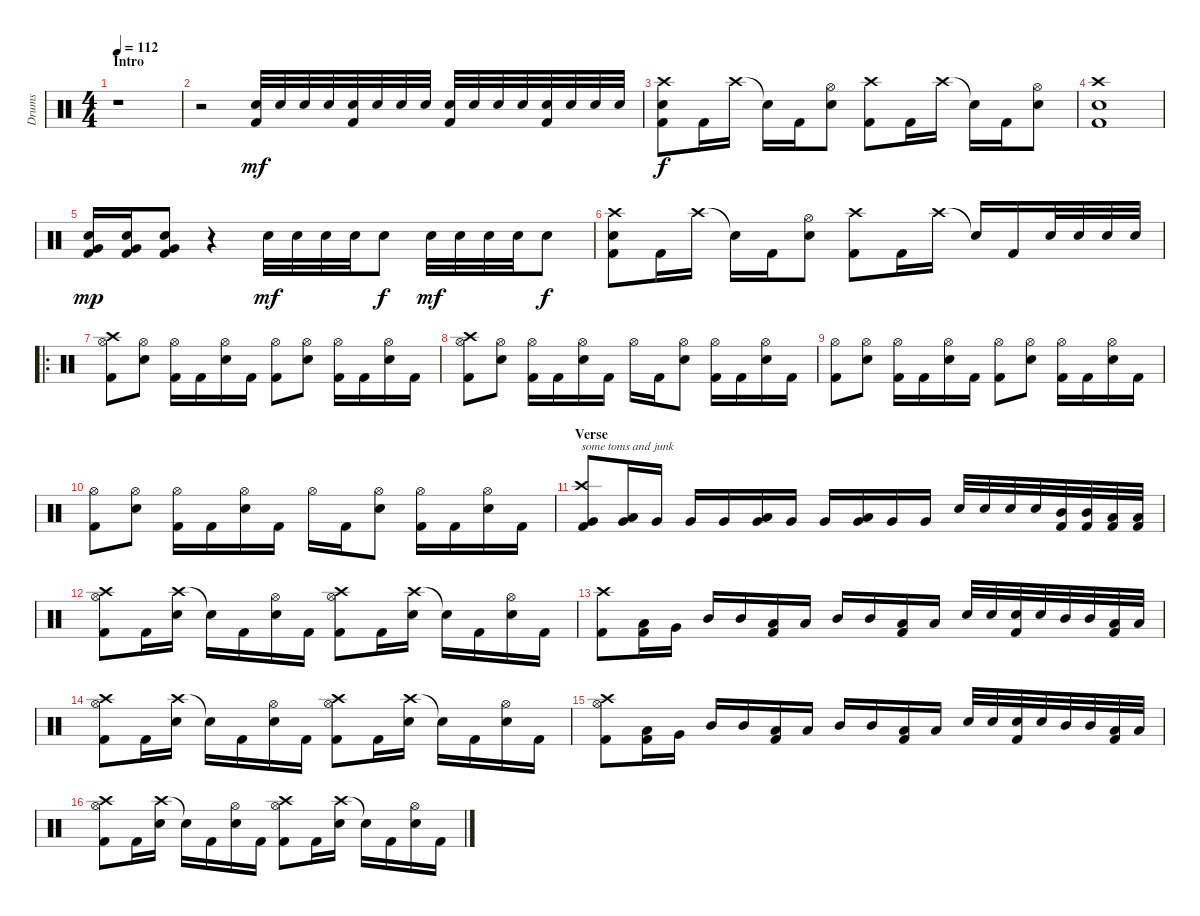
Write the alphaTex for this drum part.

\track ("Drums" "Drums") {instrument percussion}
\staff {score}
\articulation defaults
\ts (4 4)
\section ("" "Intro")
\tempo 112
\clef neutral
\ks c
r.1{dy mf} |
r.2 ("Electric Snare (hit)" "Kick (hit) 2").32 "Electric Snare (hit)".32 "Electric Snare (hit)".32 "Electric Snare (hit)".32 ("Electric Snare (hit)" "Kick (hit) 2").32 "Electric Snare (hit)".32 "Electric Snare (hit)".32 "Electric Snare (hit)".32 ("Electric Snare (hit)" "Kick (hit) 2").32 "Electric Snare (hit)".32 "Electric Snare (hit)".32 "Electric Snare (hit)".32 ("Electric Snare (hit)" "Kick (hit) 2").32 "Electric Snare (hit)".32 "Electric Snare (hit)".32 "Electric Snare (hit)".32 |
("Crash high (hit)" "Electric Snare (hit)" "Kick (hit) 2").8{dy f} "Kick (hit) 2".16 "Crash high (hit)".16 "Snare (hit)"{t}.16 "Kick (hit) 2".16 ("Hi-Hat (open)" "Electric Snare (hit)").8 ("Crash high (hit)" "Kick (hit) 2").8 "Kick (hit) 2".16 "Crash high (hit)".16 "Snare (hit)"{t}.16 "Kick (hit) 2".16 ("Hi-Hat (open)" "Electric Snare (hit)").8 |
("Crash high (hit)" "Electric Snare (hit)" "Kick (hit) 2").1 |
("Very Low Tom (hit)" "Electric Snare (hit)" "Kick (hit) 2").16{dy mp} ("Very Low Tom (hit)" "Electric Snare (hit)" "Kick (hit) 2").16 ("Very Low Tom (hit)" "Electric Snare (hit)" "Kick (hit) 2").8 r.4 "Electric Snare (hit)".32{dy mf} "Electric Snare (hit)".32 "Electric Snare (hit)".32 "Electric Snare (hit)".32 "Electric Snare (hit)".8{dy f} "Electric Snare (hit)".32{dy mf} "Electric Snare (hit)".32 "Electric Snare (hit)".32 "Electric Snare (hit)".32 "Electric Snare (hit)".8{dy f} |
("Crash high (hit)" "Electric Snare (hit)" "Kick (hit) 2").8 "Kick (hit) 2".16 "Crash high (hit)".16 "Snare (hit)"{t}.16 "Kick (hit) 2".16 ("Hi-Hat (open)" "Electric Snare (hit)").8 ("Crash high (hit)" "Kick (hit) 2").8 "Kick (hit) 2".16 "Crash high (hit)".16 "Snare (hit)"{t}.16 "Kick (hit) 2".16 "Electric Snare (hit)".32 "Electric Snare (hit)".32 "Electric Snare (hit)".32 "Electric Snare (hit)".32 |
\ro
("Crash high (hit)" "Hi-Hat (open)" "Kick (hit) 2").8 ("Hi-Hat (open)" "Electric Snare (hit)").8 ("Hi-Hat (open)" "Kick (hit) 2").16 "Kick (hit) 2".16 ("Hi-Hat (open)" "Electric Snare (hit)").16 "Kick (hit) 2".16 ("Hi-Hat (open)" "Kick (hit) 2").8 ("Hi-Hat (open)" "Electric Snare (hit)").8 ("Hi-Hat (open)" "Kick (hit) 2").16 "Kick (hit) 2".16 ("Hi-Hat (open)" "Electric Snare (hit)").16 "Kick (hit) 2".16 |
("Crash high (hit)" "Hi-Hat (open)" "Kick (hit) 2").8 ("Hi-Hat (open)" "Electric Snare (hit)").8 ("Hi-Hat (open)" "Kick (hit) 2").16 "Kick (hit) 2".16 ("Hi-Hat (open)" "Electric Snare (hit)").16 "Kick (hit) 2".16 "Hi-Hat (open)".16 "Kick (hit) 2".16 ("Hi-Hat (open)" "Electric Snare (hit)").8 ("Hi-Hat (open)" "Kick (hit) 2").16 "Kick (hit) 2".16 ("Hi-Hat (open)" "Electric Snare (hit)").16 "Kick (hit) 2".16 |
("Hi-Hat (open)" "Kick (hit) 2").8 ("Hi-Hat (open)" "Electric Snare (hit)").8 ("Hi-Hat (open)" "Kick (hit) 2").16 "Kick (hit) 2".16 ("Hi-Hat (open)" "Electric Snare (hit)").16 "Kick (hit) 2".16 ("Hi-Hat (open)" "Kick (hit) 2").8 ("Hi-Hat (open)" "Electric Snare (hit)").8 ("Hi-Hat (open)" "Kick (hit) 2").16 "Kick (hit) 2".16 ("Hi-Hat (open)" "Electric Snare (hit)").16 "Kick (hit) 2".16 |
("Hi-Hat (open)" "Kick (hit) 2").8 ("Hi-Hat (open)" "Electric Snare (hit)").8 ("Hi-Hat (open)" "Kick (hit) 2").16 "Kick (hit) 2".16 ("Hi-Hat (open)" "Electric Snare (hit)").16 "Kick (hit) 2".16 "Hi-Hat (open)".16 "Kick (hit) 2".16 ("Hi-Hat (open)" "Electric Snare (hit)").8 ("Hi-Hat (open)" "Kick (hit) 2").16 "Kick (hit) 2".16 ("Hi-Hat (open)" "Electric Snare (hit)").16 "Kick (hit) 2".16 |
\section ("" "Verse")
("Crash high (hit)" "Very Low Tom (hit)" "Kick (hit) 2").8{txt "some toms and junk"} ("Low Tom (hit)" "Very Low Tom (hit)").16 "Very Low Tom (hit)".16 "Very Low Tom (hit)".16 "Very Low Tom (hit)".16 ("Low Tom (hit)" "Very Low Tom (hit)").16 "Very Low Tom (hit)".16 "Very Low Tom (hit)".16 ("Low Tom (hit)" "Very Low Tom (hit)").16 "Very Low Tom (hit)".16 "Very Low Tom (hit)".16 "Electric Snare (hit)".32 "Electric Snare (hit)".32 "Electric Snare (hit)".32 "Electric Snare (hit)".32 ("Mid Tom (hit)" "Kick (hit) 2").32 ("Mid Tom (hit)" "Kick (hit) 2").32 ("Low Tom (hit)" "Kick (hit) 2").32 ("Low Tom (hit)" "Kick (hit) 2").32 |
("Crash high (hit)" "Hi-Hat (open)" "Kick (hit) 2").8 "Kick (hit) 2".16 ("Crash high (hit)" "Electric Snare (hit)").16 "Snare (hit)"{t}.16 "Kick (hit) 2".16 ("Hi-Hat (open)" "Electric Snare (hit)").16 "Kick (hit) 2".16 ("Crash high (hit)" "Hi-Hat (open)" "Kick (hit) 2").8 "Kick (hit) 2".16 ("Crash high (hit)" "Electric Snare (hit)").16 "Snare (hit)"{t}.16 "Kick (hit) 2".16 ("Hi-Hat (open)" "Electric Snare (hit)").16 "Kick (hit) 2".16 |
("Crash high (hit)" "Kick (hit) 2").8 ("Low Tom (hit)" "Kick (hit) 2").16 "Very Low Tom (hit)".16 "Mid Tom (hit)".16 "Mid Tom (hit)".16 ("Low Tom (hit)" "Kick (hit) 2").16 "Low Tom (hit)".16 "Mid Tom (hit)".16 "Mid Tom (hit)".16 ("Low Tom (hit)" "Kick (hit) 2").16 "Low Tom (hit)".16 "Electric Snare (hit)".32 "Electric Snare (hit)".32 ("Electric Snare (hit)" "Kick (hit) 2").32 "Electric Snare (hit)".32 "Mid Tom (hit)".32 "Mid Tom (hit)".32 ("Low Tom (hit)" "Kick (hit) 2").32 "Low Tom (hit)".32 |
("Crash high (hit)" "Hi-Hat (open)" "Kick (hit) 2").8 "Kick (hit) 2".16 ("Crash high (hit)" "Electric Snare (hit)").16 "Snare (hit)"{t}.16 "Kick (hit) 2".16 ("Hi-Hat (open)" "Electric Snare (hit)").16 "Kick (hit) 2".16 ("Crash high (hit)" "Hi-Hat (open)" "Kick (hit) 2").8 "Kick (hit) 2".16 ("Crash high (hit)" "Electric Snare (hit)").16 "Snare (hit)"{t}.16 "Kick (hit) 2".16 ("Hi-Hat (open)" "Electric Snare (hit)").16 "Kick (hit) 2".16 |
("Crash high (hit)" "Hi-Hat (open)" "Kick (hit) 2").8 ("Low Tom (hit)" "Kick (hit) 2").16 "Very Low Tom (hit)".16 "Mid Tom (hit)".16 "Mid Tom (hit)".16 ("Low Tom (hit)" "Kick (hit) 2").16 "Low Tom (hit)".16 "Mid Tom (hit)".16 "Mid Tom (hit)".16 ("Low Tom (hit)" "Kick (hit) 2").16 "Low Tom (hit)".16 "Electric Snare (hit)".32 "Electric Snare (hit)".32 ("Electric Snare (hit)" "Kick (hit) 2").32 "Electric Snare (hit)".32 "Mid Tom (hit)".32 "Mid Tom (hit)".32 ("Low Tom (hit)" "Kick (hit) 2").32 "Low Tom (hit)".32 |
("Crash high (hit)" "Hi-Hat (open)" "Kick (hit) 2").8 "Kick (hit) 2".16 ("Crash high (hit)" "Electric Snare (hit)").16 "Snare (hit)"{t}.16 "Kick (hit) 2".16 ("Hi-Hat (open)" "Electric Snare (hit)").16 "Kick (hit) 2".16 ("Crash high (hit)" "Hi-Hat (open)" "Kick (hit) 2").8 "Kick (hit) 2".16 ("Crash high (hit)" "Electric Snare (hit)").16 "Snare (hit)"{t}.16 "Kick (hit) 2".16 ("Hi-Hat (open)" "Electric Snare (hit)").16 "Kick (hit) 2".16
